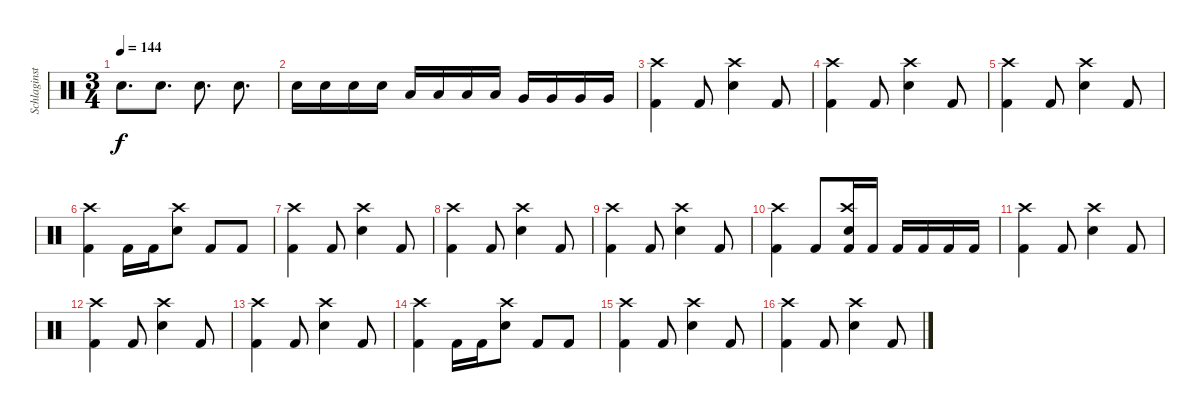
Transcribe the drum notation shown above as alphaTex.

\track ("Schlaginstrumente - Auswahl" "Schlaginst") {instrument percussion}
\staff {score}
\articulation defaults
\ts (3 4)
\tempo 144
\clef neutral
\ks c "Snare (hit) 2".8{d dy f} "Snare (hit) 2".8{d} "Snare (hit) 2".8{d} "Snare (hit) 2".8{d}
|
"Snare (hit) 2".16 "Snare (hit) 2".16 "Snare (hit) 2".16 "Snare (hit) 2".16 "Low Tom (hit)".16 "Low Tom (hit)".16 "Low Tom (hit)".16 "Low Tom (hit)".16 "Very Low Tom (hit)".16 "Very Low Tom (hit)".16 "Very Low Tom (hit)".16 "Very Low Tom (hit)".16 |
("Crash high (hit)" "Kick (hit) 2").4 "Kick (hit) 2".8 ("Crash high (hit)" "Snare (hit) 2").4 "Kick (hit) 2".8 |
("Crash high (hit)" "Kick (hit) 2").4 "Kick (hit) 2".8 ("Crash high (hit)" "Snare (hit) 2").4 "Kick (hit) 2".8 |
("Crash high (hit)" "Kick (hit) 2").4 "Kick (hit) 2".8 ("Crash high (hit)" "Snare (hit) 2").4 "Kick (hit) 2".8 |
("Crash high (hit)" "Kick (hit) 2").4 "Kick (hit) 2".16 "Kick (hit) 2".16 ("Crash high (hit)" "Snare (hit) 2").8 "Kick (hit) 2".8 "Kick (hit) 2".8 |
("Crash high (hit)" "Kick (hit) 2").4 "Kick (hit) 2".8 ("Crash high (hit)" "Snare (hit) 2").4 "Kick (hit) 2".8 |
("Crash high (hit)" "Kick (hit) 2").4 "Kick (hit) 2".8 ("Crash high (hit)" "Snare (hit) 2").4 "Kick (hit) 2".8 |
("Crash high (hit)" "Kick (hit) 2").4 "Kick (hit) 2".8 ("Crash high (hit)" "Snare (hit) 2").4 "Kick (hit) 2".8 |
("Crash high (hit)" "Kick (hit) 2").4 "Kick (hit) 2".8 ("Crash high (hit)" "Snare (hit) 2" "Kick (hit) 2").16 "Kick (hit) 2".16 "Kick (hit) 2".16 "Kick (hit) 2".16 "Kick (hit) 2".16 "Kick (hit) 2".16 |
("Crash high (hit)" "Kick (hit) 2").4 "Kick (hit) 2".8 ("Crash high (hit)" "Snare (hit) 2").4 "Kick (hit) 2".8 |
("Crash high (hit)" "Kick (hit) 2").4 "Kick (hit) 2".8 ("Crash high (hit)" "Snare (hit) 2").4 "Kick (hit) 2".8 |
("Crash high (hit)" "Kick (hit) 2").4 "Kick (hit) 2".8 ("Crash high (hit)" "Snare (hit) 2").4 "Kick (hit) 2".8 |
("Crash high (hit)" "Kick (hit) 2").4 "Kick (hit) 2".16 "Kick (hit) 2".16 ("Crash high (hit)" "Snare (hit) 2").8 "Kick (hit) 2".8 "Kick (hit) 2".8 |
("Crash high (hit)" "Kick (hit) 2").4 "Kick (hit) 2".8 ("Crash high (hit)" "Snare (hit) 2").4 "Kick (hit) 2".8 |
("Crash high (hit)" "Kick (hit) 2").4 "Kick (hit) 2".8 ("Crash high (hit)" "Snare (hit) 2").4 "Kick (hit) 2".8
